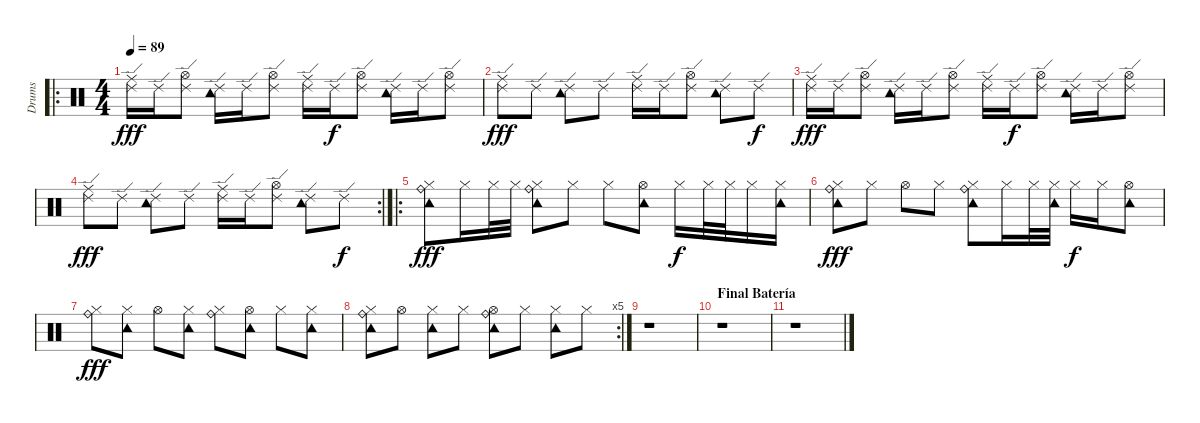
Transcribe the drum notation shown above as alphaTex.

\track ("Drums" "Drums") {instrument percussion}
\staff {score}
\articulation defaults
\ro
\ts (4 4)
\tempo 89
\clef neutral
\ks c
("Ride (edge) 2" "Ride (middle)").16{dy fff} "Ride (edge) 2".16 ("Ride (edge) 2" "Hi-Hat (open)").8 ("Ride (edge) 2" "Tambourine (hit)").16 "Ride (edge) 2".16 ("Ride (edge) 2" "Hi-Hat (open)").8 ("Ride (edge) 2" "Ride (middle)").16 "Ride (edge) 2".16{dy f} ("Ride (edge) 2" "Hi-Hat (open)").8 ("Ride (edge) 2" "Tambourine (hit)").16 "Ride (edge) 2".16 ("Ride (edge) 2" "Hi-Hat (open)").8 |
("Ride (edge) 2" "Ride (middle)").8{dy fff} "Ride (edge) 2".8 ("Ride (edge) 2" "Tambourine (hit)").8 "Ride (edge) 2".8 ("Ride (edge) 2" "Ride (middle)").16 "Ride (edge) 2".16 ("Ride (edge) 2" "Hi-Hat (open)").8 ("Ride (edge) 2" "Tambourine (hit)").8 "Ride (edge) 2".8{dy f} |
("Ride (edge) 2" "Ride (middle)").16{dy fff} "Ride (edge) 2".16 ("Ride (edge) 2" "Hi-Hat (open)").8 ("Ride (edge) 2" "Tambourine (hit)").16 "Ride (edge) 2".16 ("Ride (edge) 2" "Hi-Hat (open)").8 ("Ride (edge) 2" "Ride (middle)").16 "Ride (edge) 2".16{dy f} ("Ride (edge) 2" "Hi-Hat (open)").8 ("Ride (edge) 2" "Tambourine (hit)").16 "Ride (edge) 2".16 ("Ride (edge) 2" "Hi-Hat (open)").8 |
\rc 2
("Ride (edge) 2" "Ride (middle)").8{dy fff} "Ride (edge) 2".8 ("Ride (edge) 2" "Tambourine (hit)").8 "Ride (edge) 2".8 ("Ride (edge) 2" "Ride (middle)").16 "Ride (edge) 2".16 ("Ride (edge) 2" "Hi-Hat (open)").8 ("Ride (edge) 2" "Tambourine (hit)").8 "Ride (edge) 2".8{dy f} |
\ro
("Hi-Hat (closed)" "Ride (bell)" "Tambourine (hit)").8{dy fff} "Hi-Hat (closed)".16 "Hi-Hat (closed)".32 "Hi-Hat (closed)".32 ("Hi-Hat (closed)" "Ride (bell)" "Tambourine (hit)").8 "Hi-Hat (closed)".8 "Hi-Hat (closed)".8 ("Hi-Hat (open)" "Tambourine (hit)").8 "Hi-Hat (closed)".16{dy f} "Hi-Hat (closed)".32 "Hi-Hat (closed)".32 "Hi-Hat (closed)".16 ("Hi-Hat (closed)" "Tambourine (hit)").16 |
("Hi-Hat (closed)" "Ride (bell)" "Tambourine (hit)").8{dy fff} "Hi-Hat (closed)".8 "Hi-Hat (open)".8 "Hi-Hat (closed)".8 ("Hi-Hat (closed)" "Ride (bell)" "Tambourine (hit)").8 "Hi-Hat (closed)".16 "Hi-Hat (closed)".32 ("Hi-Hat (closed)" "Tambourine (hit)").32 "Hi-Hat (closed)".16{dy f} "Hi-Hat (closed)".16 ("Hi-Hat (open)" "Tambourine (hit)").8 |
("Hi-Hat (closed)" "Ride (bell)").8{dy fff} ("Hi-Hat (closed)" "Tambourine (hit)").8 "Hi-Hat (open)".8 ("Hi-Hat (closed)" "Tambourine (hit)").8 ("Hi-Hat (closed)" "Ride (bell)").8 ("Hi-Hat (open)" "Tambourine (hit)").8 "Hi-Hat (closed)".8 ("Hi-Hat (closed)" "Tambourine (hit)").8 |
\rc 5
("Hi-Hat (closed)" "Ride (bell)" "Tambourine (hit)").8 "Hi-Hat (open)".8 ("Hi-Hat (closed)" "Tambourine (hit)").8 "Hi-Hat (closed)".8 ("Hi-Hat (open)" "Ride (bell)" "Tambourine (hit)").8 "Hi-Hat (closed)".8 ("Hi-Hat (closed)" "Tambourine (hit)").8 "Hi-Hat (closed)".8 |
r.1 |
\section ("" "Final Batería")
r.1 |
r.1
